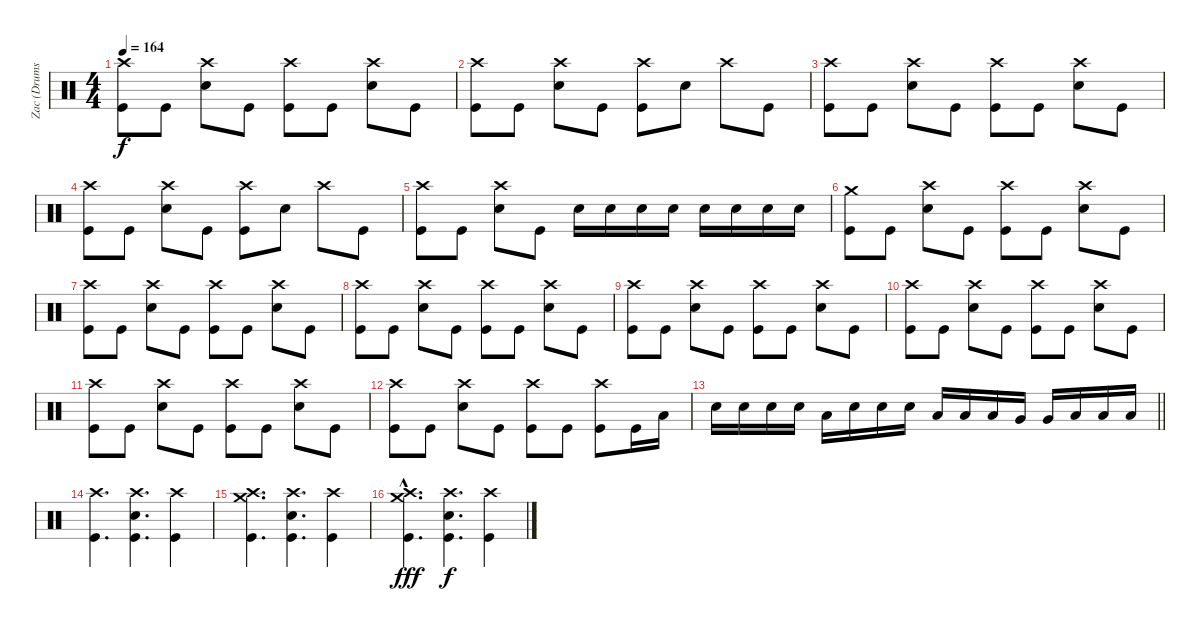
\track ("Zac (Drums)" "Zac (Drums") {instrument percussion}
\staff {score}
\articulation defaults
\ts (4 4)
\tempo 164
\clef neutral
\ks c
("Crash high (hit)" "Kick (hit)").8{dy f} "Kick (hit)".8 ("Crash high (hit)" "Electric Snare (hit)").8 "Kick (hit)".8 ("Crash high (hit)" "Kick (hit)").8 "Kick (hit)".8 ("Crash high (hit)" "Electric Snare (hit)").8 "Kick (hit)".8 |
("Crash high (hit)" "Kick (hit)").8 "Kick (hit)".8 ("Crash high (hit)" "Electric Snare (hit)").8 "Kick (hit)".8 ("Crash high (hit)" "Kick (hit)").8 "Electric Snare (hit)".8 "Crash high (hit)".8 "Kick (hit)".8 |
("Crash high (hit)" "Kick (hit)").8 "Kick (hit)".8 ("Crash high (hit)" "Electric Snare (hit)").8 "Kick (hit)".8 ("Crash high (hit)" "Kick (hit)").8 "Kick (hit)".8 ("Crash high (hit)" "Electric Snare (hit)").8 "Kick (hit)".8 |
("Crash high (hit)" "Kick (hit)").8 "Kick (hit)".8 ("Crash high (hit)" "Electric Snare (hit)").8 "Kick (hit)".8 ("Crash high (hit)" "Kick (hit)").8 "Electric Snare (hit)".8 "Crash high (hit)".8 "Kick (hit)".8 |
("Crash high (hit)" "Kick (hit)").8 "Kick (hit)".8 ("Crash high (hit)" "Electric Snare (hit)").8 "Kick (hit)".8 "Electric Snare (hit)".16 "Electric Snare (hit)".16 "Electric Snare (hit)".16 "Electric Snare (hit)".16 "Electric Snare (hit)".16 "Electric Snare (hit)".16 "Electric Snare (hit)".16 "Electric Snare (hit)".16 |
("Crash medium (hit)" "Kick (hit)").8 "Kick (hit)".8 ("Crash high (hit)" "Electric Snare (hit)").8 "Kick (hit)".8 ("Crash high (hit)" "Kick (hit)").8 "Kick (hit)".8 ("Crash high (hit)" "Electric Snare (hit)").8 "Kick (hit)".8 |
("Crash high (hit)" "Kick (hit)").8 "Kick (hit)".8 ("Crash high (hit)" "Electric Snare (hit)").8 "Kick (hit)".8 ("Crash high (hit)" "Kick (hit)").8 "Kick (hit)".8 ("Crash high (hit)" "Electric Snare (hit)").8 "Kick (hit)".8 |
("Crash high (hit)" "Kick (hit)").8 "Kick (hit)".8 ("Crash high (hit)" "Electric Snare (hit)").8 "Kick (hit)".8 ("Crash high (hit)" "Kick (hit)").8 "Kick (hit)".8 ("Crash high (hit)" "Electric Snare (hit)").8 "Kick (hit)".8 |
("Crash high (hit)" "Kick (hit)").8 "Kick (hit)".8 ("Crash high (hit)" "Electric Snare (hit)").8 "Kick (hit)".8 ("Crash high (hit)" "Kick (hit)").8 "Kick (hit)".8 ("Crash high (hit)" "Electric Snare (hit)").8 "Kick (hit)".8 |
("Crash high (hit)" "Kick (hit)").8 "Kick (hit)".8 ("Crash high (hit)" "Electric Snare (hit)").8 "Kick (hit)".8 ("Crash high (hit)" "Kick (hit)").8 "Kick (hit)".8 ("Crash high (hit)" "Electric Snare (hit)").8 "Kick (hit)".8 |
("Crash high (hit)" "Kick (hit)").8 "Kick (hit)".8 ("Crash high (hit)" "Electric Snare (hit)").8 "Kick (hit)".8 ("Crash high (hit)" "Kick (hit)").8 "Kick (hit)".8 ("Crash high (hit)" "Electric Snare (hit)").8 "Kick (hit)".8 |
("Crash high (hit)" "Kick (hit)").8 "Kick (hit)".8 ("Crash high (hit)" "Electric Snare (hit)").8 "Kick (hit)".8 ("Crash high (hit)" "Kick (hit)").8 "Kick (hit)".8 ("Crash high (hit)" "Kick (hit)").8 "Kick (hit)".16 "Low Tom (hit)".16 |
\barLineRight lightlight "Electric Snare (hit)".16 "Electric Snare (hit)".16 "Electric Snare (hit)".16 "Electric Snare (hit)".16 "Low Tom (hit)".16 "Electric Snare (hit)".16 "Electric Snare (hit)".16 "Electric Snare (hit)".16 "Low Tom (hit)".16 "Low Tom (hit)".16 "Low Tom (hit)".16 "Very Low Tom (hit)".16 "Very Low Tom (hit)".16 "Low Floor Tom (hit)".16 "Low Floor Tom (hit)".16 "Low Floor Tom (hit)".16
|
("Crash high (hit)" "Kick (hit)").4{d} ("Crash high (hit)" "Electric Snare (hit)" "Kick (hit)").4{d} ("Crash high (hit)" "Kick (hit)").4 |
("Crash high (hit)" "Crash medium (hit)" "Kick (hit)").4{d} ("Crash high (hit)" "Electric Snare (hit)" "Kick (hit)").4{d} ("Crash high (hit)" "Kick (hit)").4 |
("Crash high (hit)"{hac} "Crash medium (hit)" "Kick (hit)").4{d dy fff} ("Crash high (hit)" "Electric Snare (hit)" "Kick (hit)").4{d dy f} ("Crash high (hit)" "Kick (hit)").4
